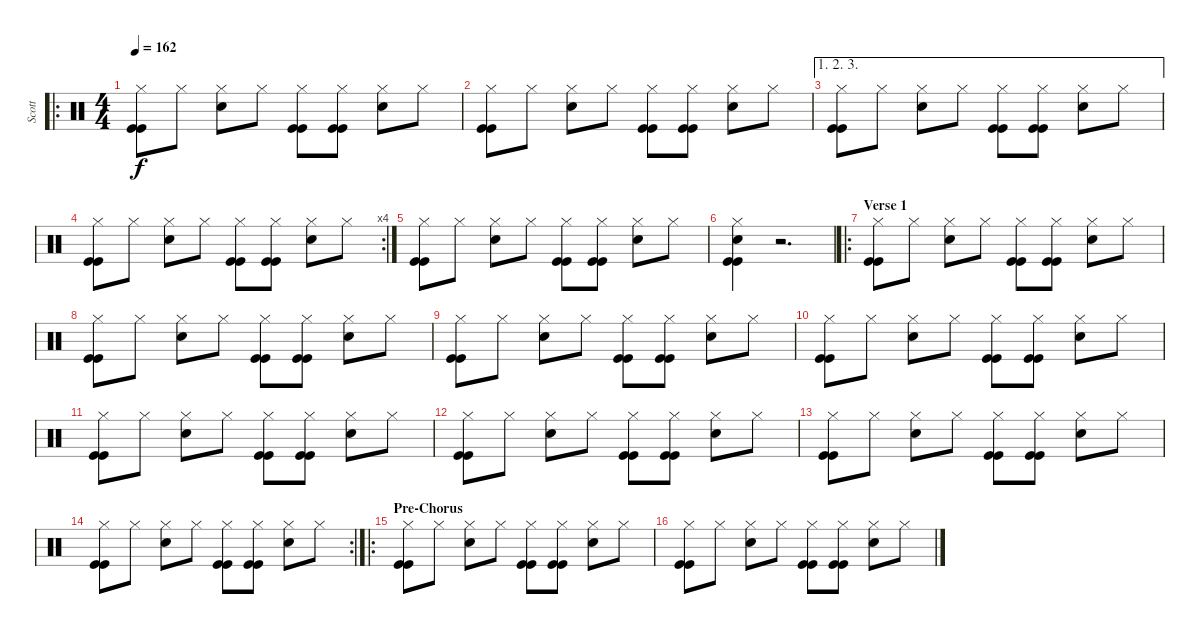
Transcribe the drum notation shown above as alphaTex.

\track ("Scott" "Scott") {instrument percussion}
\staff {score}
\articulation defaults
\ro
\ts (4 4)
\tempo 162
\clef neutral
\ks c
("Hi-Hat (closed)" "Kick (hit)" "Kick (hit)").8{dy f} "Hi-Hat (closed)".8 ("Hi-Hat (closed)" "Snare (hit) 2").8 "Hi-Hat (closed)".8 ("Hi-Hat (closed)" "Kick (hit)" "Kick (hit)").8 ("Hi-Hat (closed)" "Kick (hit)" "Kick (hit)").8 ("Hi-Hat (closed)" "Snare (hit) 2").8 "Hi-Hat (closed)".8 |
("Hi-Hat (closed)" "Kick (hit)" "Kick (hit)").8 "Hi-Hat (closed)".8 ("Hi-Hat (closed)" "Snare (hit) 2").8 "Hi-Hat (closed)".8 ("Hi-Hat (closed)" "Kick (hit)" "Kick (hit)").8 ("Hi-Hat (closed)" "Kick (hit)" "Kick (hit)").8 ("Hi-Hat (closed)" "Snare (hit) 2").8 "Hi-Hat (closed)".8 |
\ae (1 2 3)
("Hi-Hat (closed)" "Kick (hit)" "Kick (hit)").8 "Hi-Hat (closed)".8 ("Hi-Hat (closed)" "Snare (hit) 2").8 "Hi-Hat (closed)".8 ("Hi-Hat (closed)" "Kick (hit)" "Kick (hit)").8 ("Hi-Hat (closed)" "Kick (hit)" "Kick (hit)").8 ("Hi-Hat (closed)" "Snare (hit) 2").8 "Hi-Hat (closed)".8 |
\rc 4
("Hi-Hat (closed)" "Kick (hit)" "Kick (hit)").8 "Hi-Hat (closed)".8 ("Hi-Hat (closed)" "Snare (hit) 2").8 "Hi-Hat (closed)".8 ("Hi-Hat (closed)" "Kick (hit)" "Kick (hit)").8 ("Hi-Hat (closed)" "Kick (hit)" "Kick (hit)").8 ("Hi-Hat (closed)" "Snare (hit) 2").8 "Hi-Hat (closed)".8 |
("Hi-Hat (closed)" "Kick (hit)" "Kick (hit)").8 "Hi-Hat (closed)".8 ("Hi-Hat (closed)" "Snare (hit) 2").8 "Hi-Hat (closed)".8 ("Hi-Hat (closed)" "Kick (hit)" "Kick (hit)").8 ("Hi-Hat (closed)" "Kick (hit)" "Kick (hit)").8 ("Hi-Hat (closed)" "Snare (hit) 2").8 "Hi-Hat (closed)".8 |
("Hi-Hat (closed)" "Snare (hit) 2" "Kick (hit)" "Kick (hit)").4 r.2{d} |
\ro
\section ("" "Verse 1")
("Hi-Hat (closed)" "Kick (hit)" "Kick (hit)").8 "Hi-Hat (closed)".8 ("Hi-Hat (closed)" "Snare (hit) 2").8 "Hi-Hat (closed)".8 ("Hi-Hat (closed)" "Kick (hit)" "Kick (hit)").8 ("Hi-Hat (closed)" "Kick (hit)" "Kick (hit)").8 ("Hi-Hat (closed)" "Snare (hit) 2").8 "Hi-Hat (closed)".8 |
("Hi-Hat (closed)" "Kick (hit)" "Kick (hit)").8 "Hi-Hat (closed)".8 ("Hi-Hat (closed)" "Snare (hit) 2").8 "Hi-Hat (closed)".8 ("Hi-Hat (closed)" "Kick (hit)" "Kick (hit)").8 ("Hi-Hat (closed)" "Kick (hit)" "Kick (hit)").8 ("Hi-Hat (closed)" "Snare (hit) 2").8 "Hi-Hat (closed)".8 |
("Hi-Hat (closed)" "Kick (hit)" "Kick (hit)").8 "Hi-Hat (closed)".8 ("Hi-Hat (closed)" "Snare (hit) 2").8 "Hi-Hat (closed)".8 ("Hi-Hat (closed)" "Kick (hit)" "Kick (hit)").8 ("Hi-Hat (closed)" "Kick (hit)" "Kick (hit)").8 ("Hi-Hat (closed)" "Snare (hit) 2").8 "Hi-Hat (closed)".8 |
("Hi-Hat (closed)" "Kick (hit)" "Kick (hit)").8 "Hi-Hat (closed)".8 ("Hi-Hat (closed)" "Snare (hit) 2").8 "Hi-Hat (closed)".8 ("Hi-Hat (closed)" "Kick (hit)" "Kick (hit)").8 ("Hi-Hat (closed)" "Kick (hit)" "Kick (hit)").8 ("Hi-Hat (closed)" "Snare (hit) 2").8 "Hi-Hat (closed)".8 |
("Hi-Hat (closed)" "Kick (hit)" "Kick (hit)").8 "Hi-Hat (closed)".8 ("Hi-Hat (closed)" "Snare (hit) 2").8 "Hi-Hat (closed)".8 ("Hi-Hat (closed)" "Kick (hit)" "Kick (hit)").8 ("Hi-Hat (closed)" "Kick (hit)" "Kick (hit)").8 ("Hi-Hat (closed)" "Snare (hit) 2").8 "Hi-Hat (closed)".8 |
("Hi-Hat (closed)" "Kick (hit)" "Kick (hit)").8 "Hi-Hat (closed)".8 ("Hi-Hat (closed)" "Snare (hit) 2").8 "Hi-Hat (closed)".8 ("Hi-Hat (closed)" "Kick (hit)" "Kick (hit)").8 ("Hi-Hat (closed)" "Kick (hit)" "Kick (hit)").8 ("Hi-Hat (closed)" "Snare (hit) 2").8 "Hi-Hat (closed)".8 |
("Hi-Hat (closed)" "Kick (hit)" "Kick (hit)").8 "Hi-Hat (closed)".8 ("Hi-Hat (closed)" "Snare (hit) 2").8 "Hi-Hat (closed)".8 ("Hi-Hat (closed)" "Kick (hit)" "Kick (hit)").8 ("Hi-Hat (closed)" "Kick (hit)" "Kick (hit)").8 ("Hi-Hat (closed)" "Snare (hit) 2").8 "Hi-Hat (closed)".8 |
\rc 2
("Hi-Hat (closed)" "Kick (hit)" "Kick (hit)").8 "Hi-Hat (closed)".8 ("Hi-Hat (closed)" "Snare (hit) 2").8 "Hi-Hat (closed)".8 ("Hi-Hat (closed)" "Kick (hit)" "Kick (hit)").8 ("Hi-Hat (closed)" "Kick (hit)" "Kick (hit)").8 ("Hi-Hat (closed)" "Snare (hit) 2").8 "Hi-Hat (closed)".8 |
\ro
\section ("" "Pre-Chorus")
("Hi-Hat (closed)" "Kick (hit)" "Kick (hit)").8 "Hi-Hat (closed)".8 ("Hi-Hat (closed)" "Snare (hit) 2").8 "Hi-Hat (closed)".8 ("Hi-Hat (closed)" "Kick (hit)" "Kick (hit)").8 ("Hi-Hat (closed)" "Kick (hit)" "Kick (hit)").8 ("Hi-Hat (closed)" "Snare (hit) 2").8 "Hi-Hat (closed)".8 |
("Hi-Hat (closed)" "Kick (hit)" "Kick (hit)").8 "Hi-Hat (closed)".8 ("Hi-Hat (closed)" "Snare (hit) 2").8 "Hi-Hat (closed)".8 ("Hi-Hat (closed)" "Kick (hit)" "Kick (hit)").8 ("Hi-Hat (closed)" "Kick (hit)" "Kick (hit)").8 ("Hi-Hat (closed)" "Snare (hit) 2").8 "Hi-Hat (closed)".8
